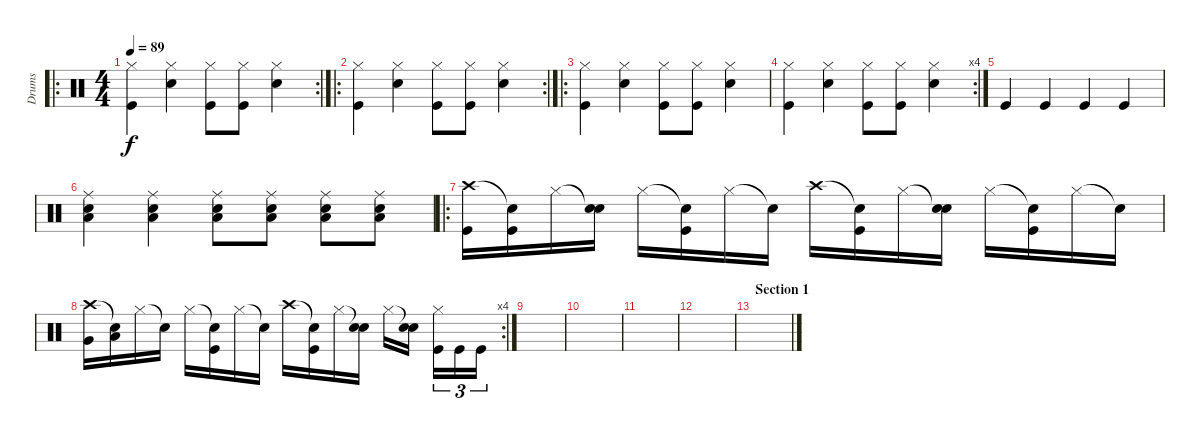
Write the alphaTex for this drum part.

\track ("Drums" "Drums") {instrument percussion}
\staff {score}
\articulation defaults
\ro
\rc 2
\ts (4 4)
\tempo 89
\clef neutral
\ks c
("Hi-Hat (closed)" "Kick (hit)").4{dy f} ("Hi-Hat (closed)" "Snare (hit) 2").4 ("Hi-Hat (closed)" "Kick (hit)").8 ("Hi-Hat (closed)" "Kick (hit)").8 ("Hi-Hat (closed)" "Snare (hit) 2").4 |
\ro
\rc 2
("Hi-Hat (closed)" "Kick (hit)").4 ("Hi-Hat (closed)" "Snare (hit) 2").4 ("Hi-Hat (closed)" "Kick (hit)").8 ("Hi-Hat (closed)" "Kick (hit)").8 ("Hi-Hat (closed)" "Snare (hit) 2").4 |
\ro
("Hi-Hat (closed)" "Kick (hit)").4 ("Hi-Hat (closed)" "Snare (hit) 2").4 ("Hi-Hat (closed)" "Kick (hit)").8 ("Hi-Hat (closed)" "Kick (hit)").8 ("Hi-Hat (closed)" "Snare (hit) 2").4 |
\rc 4
("Hi-Hat (closed)" "Kick (hit)").4 ("Hi-Hat (closed)" "Snare (hit) 2").4 ("Hi-Hat (closed)" "Kick (hit)").8 ("Hi-Hat (closed)" "Kick (hit)").8 ("Hi-Hat (closed)" "Snare (hit) 2").4 |
"Kick (hit)".4 "Kick (hit)".4 "Kick (hit)".4 "Kick (hit)".4 |
("Snare (hit) 2" "Low Floor Tom (hit)" "Ride (middle)").4 ("Snare (hit) 2" "Low Floor Tom (hit)" "Ride (middle)").4 ("Snare (hit) 2" "Low Floor Tom (hit)" "Ride (middle)").8 ("Snare (hit) 2" "Low Floor Tom (hit)" "Ride (middle)").8 ("Snare (hit) 2" "Low Floor Tom (hit)" "Ride (middle)").8 ("Snare (hit) 2" "Low Floor Tom (hit)" "Ride (middle)").8 |
\ro
("Crash high (hit)" "Kick (hit)").16 ("Snare (hit)"{t} "Kick (hit)").16 "Hi-Hat (closed)".16 ("Snare (hit)"{t} "Snare (hit) 2").16 "Hi-Hat (closed)".16 ("Snare (hit)"{t} "Kick (hit)").16 "Hi-Hat (closed)".16 "Snare (hit)"{t}.16 "Crash high (hit)".16 ("Snare (hit)"{t} "Kick (hit)").16 "Hi-Hat (closed)".16 ("Snare (hit)"{t} "Snare (hit) 2").16 "Hi-Hat (closed)".16 ("Snare (hit)"{t} "Kick (hit)").16 "Hi-Hat (closed)".16 "Snare (hit)"{t}.16 |
\rc 4
("Crash high (hit)" "Very Low Tom (hit)").16 ("Snare (hit)"{t} "Low Floor Tom (hit)").16 "Hi-Hat (closed)".16 "Snare (hit)"{t}.16 "Hi-Hat (closed)".16 ("Snare (hit)"{t} "Kick (hit)").16 "Hi-Hat (closed)".16 "Snare (hit)"{t}.16 "Crash high (hit)".16 ("Snare (hit)"{t} "Kick (hit)").16 "Hi-Hat (closed)".16 ("Snare (hit)"{t} "Snare (hit) 2").16 "Hi-Hat (closed)".16 ("Snare (hit)"{t} "Snare (hit) 2").16 ("Hi-Hat (closed)" "Kick (hit)").16{tu (3 2)} "Kick (hit)".16{tu (3 2)} "Kick (hit)".16{tu (3 2)} |
|
|
|
|
\section ("" "Section 1")
